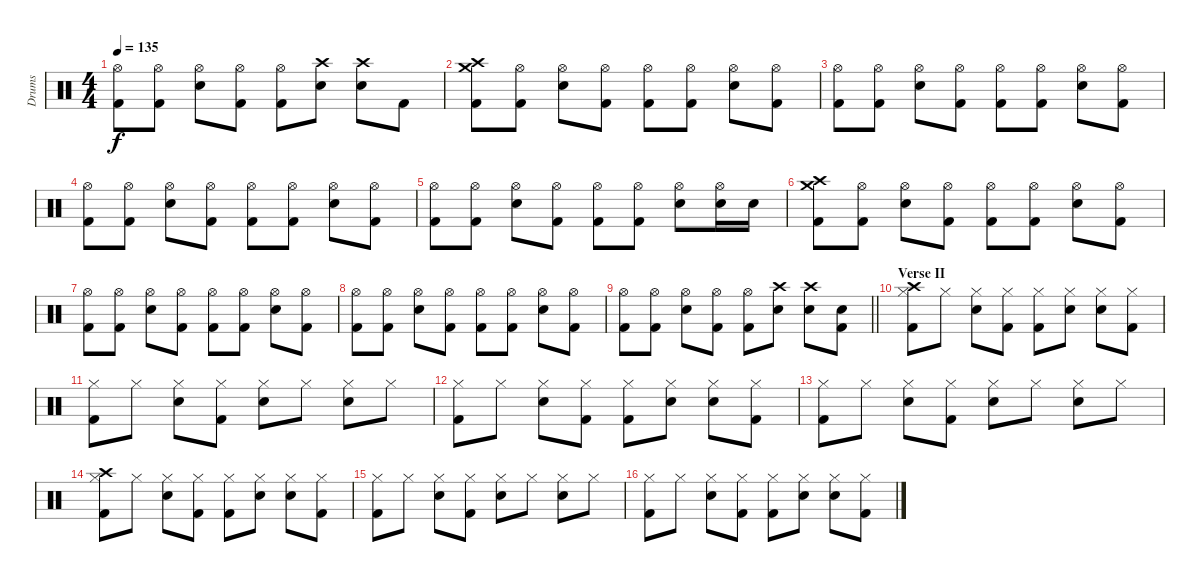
\track ("Drums" "Drums") {instrument percussion}
\staff {score}
\articulation defaults
\ts (4 4)
\tempo 135
\clef neutral
\ks c
("Hi-Hat (open)" "Kick (hit) 2").8{dy f} ("Hi-Hat (open)" "Kick (hit) 2").8 ("Hi-Hat (open)" "Electric Snare (hit)").8 ("Hi-Hat (open)" "Kick (hit) 2").8 ("Hi-Hat (open)" "Kick (hit) 2").8 ("Crash high (hit)" "Electric Snare (hit)").8 ("Crash high (hit)" "Electric Snare (hit)").8 "Kick (hit) 2".8 |
("Crash high (hit)" "Crash medium (hit)" "Kick (hit) 2").8 ("Hi-Hat (open)" "Kick (hit) 2").8 ("Hi-Hat (open)" "Electric Snare (hit)").8 ("Hi-Hat (open)" "Kick (hit) 2").8 ("Hi-Hat (open)" "Kick (hit) 2").8 ("Hi-Hat (open)" "Kick (hit) 2").8 ("Hi-Hat (open)" "Electric Snare (hit)").8 ("Hi-Hat (open)" "Kick (hit) 2").8 |
("Hi-Hat (open)" "Kick (hit) 2").8 ("Hi-Hat (open)" "Kick (hit) 2").8 ("Hi-Hat (open)" "Electric Snare (hit)").8 ("Hi-Hat (open)" "Kick (hit) 2").8 ("Hi-Hat (open)" "Kick (hit) 2").8 ("Hi-Hat (open)" "Kick (hit) 2").8 ("Hi-Hat (open)" "Electric Snare (hit)").8 ("Hi-Hat (open)" "Kick (hit) 2").8 |
("Hi-Hat (open)" "Kick (hit) 2").8 ("Hi-Hat (open)" "Kick (hit) 2").8 ("Hi-Hat (open)" "Electric Snare (hit)").8 ("Hi-Hat (open)" "Kick (hit) 2").8 ("Hi-Hat (open)" "Kick (hit) 2").8 ("Hi-Hat (open)" "Kick (hit) 2").8 ("Hi-Hat (open)" "Electric Snare (hit)").8 ("Hi-Hat (open)" "Kick (hit) 2").8 |
("Hi-Hat (open)" "Kick (hit) 2").8 ("Hi-Hat (open)" "Kick (hit) 2").8 ("Hi-Hat (open)" "Electric Snare (hit)").8 ("Hi-Hat (open)" "Kick (hit) 2").8 ("Hi-Hat (open)" "Kick (hit) 2").8 ("Hi-Hat (open)" "Kick (hit) 2").8 ("Hi-Hat (open)" "Electric Snare (hit)").8 ("Hi-Hat (open)" "Electric Snare (hit)").16 "Electric Snare (hit)".16 |
("Crash high (hit)" "Crash medium (hit)" "Kick (hit) 2").8 ("Hi-Hat (open)" "Kick (hit) 2").8 ("Hi-Hat (open)" "Electric Snare (hit)").8 ("Hi-Hat (open)" "Kick (hit) 2").8 ("Hi-Hat (open)" "Kick (hit) 2").8 ("Hi-Hat (open)" "Kick (hit) 2").8 ("Hi-Hat (open)" "Electric Snare (hit)").8 ("Hi-Hat (open)" "Kick (hit) 2").8 |
("Hi-Hat (open)" "Kick (hit) 2").8 ("Hi-Hat (open)" "Kick (hit) 2").8 ("Hi-Hat (open)" "Electric Snare (hit)").8 ("Hi-Hat (open)" "Kick (hit) 2").8 ("Hi-Hat (open)" "Kick (hit) 2").8 ("Hi-Hat (open)" "Kick (hit) 2").8 ("Hi-Hat (open)" "Electric Snare (hit)").8 ("Hi-Hat (open)" "Kick (hit) 2").8 |
("Hi-Hat (open)" "Kick (hit) 2").8 ("Hi-Hat (open)" "Kick (hit) 2").8 ("Hi-Hat (open)" "Electric Snare (hit)").8 ("Hi-Hat (open)" "Kick (hit) 2").8 ("Hi-Hat (open)" "Kick (hit) 2").8 ("Hi-Hat (open)" "Kick (hit) 2").8 ("Hi-Hat (open)" "Electric Snare (hit)").8 ("Hi-Hat (open)" "Kick (hit) 2").8 |
\barLineRight lightlight
("Hi-Hat (open)" "Kick (hit) 2").8 ("Hi-Hat (open)" "Kick (hit) 2").8 ("Hi-Hat (open)" "Electric Snare (hit)").8 ("Hi-Hat (open)" "Kick (hit) 2").8 ("Hi-Hat (open)" "Kick (hit) 2").8 ("Crash high (hit)" "Electric Snare (hit)").8 ("Crash high (hit)" "Electric Snare (hit)").8 ("Electric Snare (hit)" "Kick (hit) 2").8 |
\section ("" "Verse II")
("Crash high (hit)" "Hi-Hat (closed)" "Kick (hit) 2").8 "Hi-Hat (closed)".8 ("Hi-Hat (closed)" "Electric Snare (hit)").8 ("Hi-Hat (closed)" "Kick (hit) 2").8 ("Hi-Hat (closed)" "Kick (hit) 2").8 ("Hi-Hat (closed)" "Electric Snare (hit)").8 ("Hi-Hat (closed)" "Electric Snare (hit)").8 ("Hi-Hat (closed)" "Kick (hit) 2").8 |
("Hi-Hat (closed)" "Kick (hit) 2").8{volume 13} "Hi-Hat (closed)".8 ("Hi-Hat (closed)" "Electric Snare (hit)").8 ("Hi-Hat (closed)" "Kick (hit) 2").8 ("Hi-Hat (closed)" "Electric Snare (hit)").8 "Hi-Hat (closed)".8 ("Hi-Hat (closed)" "Electric Snare (hit)").8 "Hi-Hat (closed)".8 |
("Hi-Hat (closed)" "Kick (hit) 2").8 "Hi-Hat (closed)".8 ("Hi-Hat (closed)" "Electric Snare (hit)").8 ("Hi-Hat (closed)" "Kick (hit) 2").8 ("Hi-Hat (closed)" "Kick (hit) 2").8 ("Hi-Hat (closed)" "Electric Snare (hit)").8 ("Hi-Hat (closed)" "Electric Snare (hit)").8 ("Hi-Hat (closed)" "Kick (hit) 2").8 |
("Hi-Hat (closed)" "Kick (hit) 2").8{volume 13} "Hi-Hat (closed)".8 ("Hi-Hat (closed)" "Electric Snare (hit)").8 ("Hi-Hat (closed)" "Kick (hit) 2").8 ("Hi-Hat (closed)" "Electric Snare (hit)").8 "Hi-Hat (closed)".8 ("Hi-Hat (closed)" "Electric Snare (hit)").8 "Hi-Hat (closed)".8 |
("Crash high (hit)" "Hi-Hat (closed)" "Kick (hit) 2").8 "Hi-Hat (closed)".8 ("Hi-Hat (closed)" "Electric Snare (hit)").8 ("Hi-Hat (closed)" "Kick (hit) 2").8 ("Hi-Hat (closed)" "Kick (hit) 2").8 ("Hi-Hat (closed)" "Electric Snare (hit)").8 ("Hi-Hat (closed)" "Electric Snare (hit)").8 ("Hi-Hat (closed)" "Kick (hit) 2").8 |
("Hi-Hat (closed)" "Kick (hit) 2").8{volume 13} "Hi-Hat (closed)".8 ("Hi-Hat (closed)" "Electric Snare (hit)").8 ("Hi-Hat (closed)" "Kick (hit) 2").8 ("Hi-Hat (closed)" "Electric Snare (hit)").8 "Hi-Hat (closed)".8 ("Hi-Hat (closed)" "Electric Snare (hit)").8 "Hi-Hat (closed)".8 |
("Hi-Hat (closed)" "Kick (hit) 2").8 "Hi-Hat (closed)".8 ("Hi-Hat (closed)" "Electric Snare (hit)").8 ("Hi-Hat (closed)" "Kick (hit) 2").8 ("Hi-Hat (closed)" "Kick (hit) 2").8 ("Hi-Hat (closed)" "Electric Snare (hit)").8 ("Hi-Hat (closed)" "Electric Snare (hit)").8 ("Hi-Hat (closed)" "Kick (hit) 2").8
